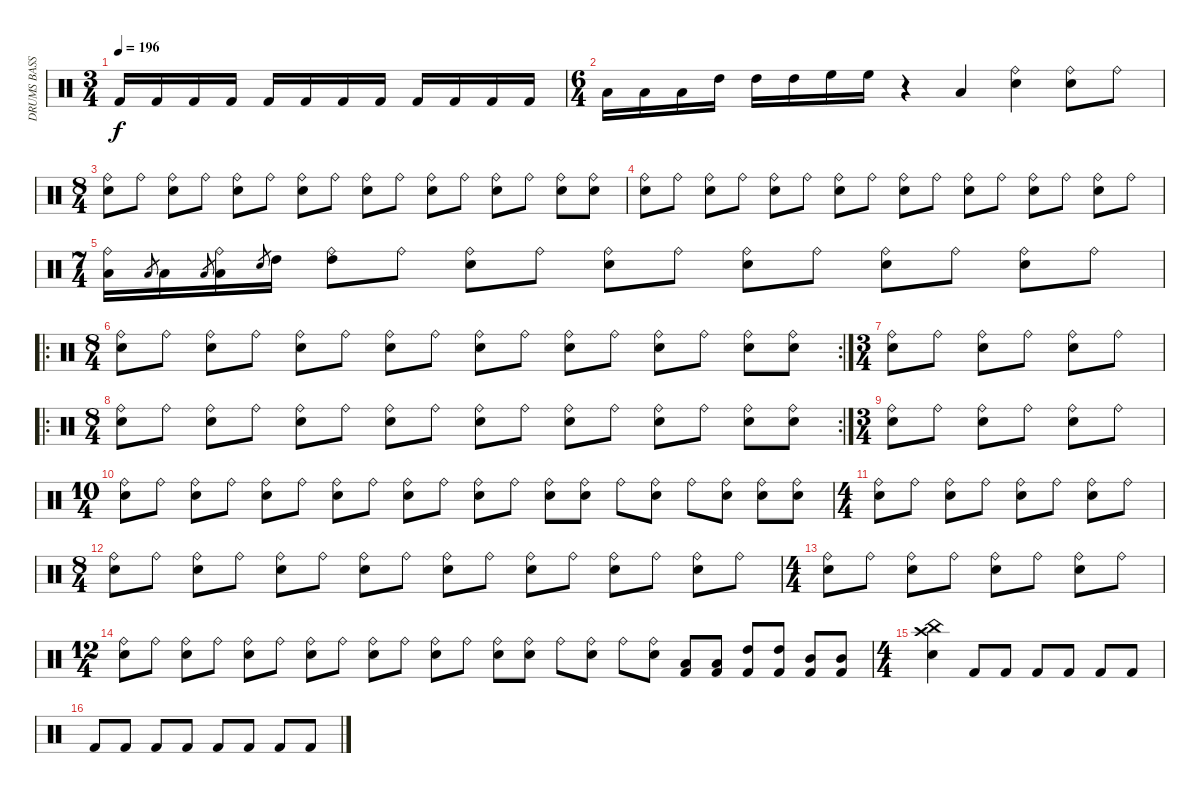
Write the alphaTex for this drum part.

\track ("DRUMS BASS" "DRUMS BASS") {instrument percussion}
\staff {score}
\articulation defaults
\ts (3 4)
\tempo 196
\clef neutral
\ks c "Kick (hit) 2".16{dy f} "Kick (hit) 2".16 "Kick (hit) 2".16 "Kick (hit) 2".16 "Kick (hit) 2".16 "Kick (hit) 2".16 "Kick (hit) 2".16 "Kick (hit) 2".16 "Kick (hit) 2".16 "Kick (hit) 2".16 "Kick (hit) 2".16 "Kick (hit) 2".16
|
\ts (6 4)
"Low Tom (hit)".16 "Low Tom (hit)".16 "Low Tom (hit)".16 "High Tom (hit)".16 "High Tom (hit)".16 "High Tom (hit)".16 "High Floor Tom (hit)".16 "High Floor Tom (hit)".16 r.4 "Low Tom (hit)".4 ("Electric Snare (hit)" "Ride (bell)").4 ("Electric Snare (hit)" "Ride (bell)").8 "Ride (bell)".8 |
\ts (8 4)
("Electric Snare (hit)" "Ride (bell)").8 "Ride (bell)".8 ("Electric Snare (hit)" "Ride (bell)").8 "Ride (bell)".8 ("Electric Snare (hit)" "Ride (bell)").8 "Ride (bell)".8 ("Electric Snare (hit)" "Ride (bell)").8 "Ride (bell)".8 ("Electric Snare (hit)" "Ride (bell)").8 "Ride (bell)".8 ("Electric Snare (hit)" "Ride (bell)").8 "Ride (bell)".8 ("Electric Snare (hit)" "Ride (bell)").8 "Ride (bell)".8 ("Electric Snare (hit)" "Ride (bell)").8 ("Electric Snare (hit)" "Ride (bell)").8 |
("Electric Snare (hit)" "Ride (bell)").8 "Ride (bell)".8 ("Electric Snare (hit)" "Ride (bell)").8 "Ride (bell)".8 ("Electric Snare (hit)" "Ride (bell)").8 "Ride (bell)".8 ("Electric Snare (hit)" "Ride (bell)").8 "Ride (bell)".8 ("Electric Snare (hit)" "Ride (bell)").8 "Ride (bell)".8 ("Electric Snare (hit)" "Ride (bell)").8 "Ride (bell)".8 ("Electric Snare (hit)" "Ride (bell)").8 "Ride (bell)".8 ("Electric Snare (hit)" "Ride (bell)").8 "Ride (bell)".8 |
\ts (7 4)
("Low Tom (hit)" "Ride (bell)").16 "Low Tom (hit)".8{gr} "Low Tom (hit)".16 "Low Tom (hit)".8{gr} ("Low Tom (hit)" "Ride (bell)").16 "Electric Snare (hit)".8{gr} "High Tom (hit)".16 ("High Tom (hit)" "Ride (bell)").8 "Ride (bell)".8 ("Electric Snare (hit)" "Ride (bell)").8 "Ride (bell)".8 ("Electric Snare (hit)" "Ride (bell)").8 "Ride (bell)".8 ("Electric Snare (hit)" "Ride (bell)").8 "Ride (bell)".8 ("Electric Snare (hit)" "Ride (bell)").8 "Ride (bell)".8 ("Electric Snare (hit)" "Ride (bell)").8 "Ride (bell)".8 |
\ro
\rc 2
\ts (8 4)
("Electric Snare (hit)" "Ride (bell)").8 "Ride (bell)".8 ("Electric Snare (hit)" "Ride (bell)").8 "Ride (bell)".8 ("Electric Snare (hit)" "Ride (bell)").8 "Ride (bell)".8 ("Electric Snare (hit)" "Ride (bell)").8 "Ride (bell)".8 ("Electric Snare (hit)" "Ride (bell)").8 "Ride (bell)".8 ("Electric Snare (hit)" "Ride (bell)").8 "Ride (bell)".8 ("Electric Snare (hit)" "Ride (bell)").8 "Ride (bell)".8 ("Electric Snare (hit)" "Ride (bell)").8 ("Electric Snare (hit)" "Ride (bell)").8 |
\ts (3 4)
("Electric Snare (hit)" "Ride (bell)").8 "Ride (bell)".8 ("Electric Snare (hit)" "Ride (bell)").8 "Ride (bell)".8 ("Electric Snare (hit)" "Ride (bell)").8 "Ride (bell)".8 |
\ro
\rc 2
\ts (8 4)
("Electric Snare (hit)" "Ride (bell)").8 "Ride (bell)".8 ("Electric Snare (hit)" "Ride (bell)").8 "Ride (bell)".8 ("Electric Snare (hit)" "Ride (bell)").8 "Ride (bell)".8 ("Electric Snare (hit)" "Ride (bell)").8 "Ride (bell)".8 ("Electric Snare (hit)" "Ride (bell)").8 "Ride (bell)".8 ("Electric Snare (hit)" "Ride (bell)").8 "Ride (bell)".8 ("Electric Snare (hit)" "Ride (bell)").8 "Ride (bell)".8 ("Electric Snare (hit)" "Ride (bell)").8 ("Electric Snare (hit)" "Ride (bell)").8 |
\ts (3 4)
("Electric Snare (hit)" "Ride (bell)").8 "Ride (bell)".8 ("Electric Snare (hit)" "Ride (bell)").8 "Ride (bell)".8 ("Electric Snare (hit)" "Ride (bell)").8 "Ride (bell)".8 |
\ts (10 4)
("Electric Snare (hit)" "Ride (bell)").8 "Ride (bell)".8 ("Electric Snare (hit)" "Ride (bell)").8 "Ride (bell)".8 ("Electric Snare (hit)" "Ride (bell)").8 "Ride (bell)".8 ("Electric Snare (hit)" "Ride (bell)").8 "Ride (bell)".8 ("Electric Snare (hit)" "Ride (bell)").8 "Ride (bell)".8 ("Electric Snare (hit)" "Ride (bell)").8 "Ride (bell)".8 ("Electric Snare (hit)" "Ride (bell)").8 ("Electric Snare (hit)" "Ride (bell)").8 "Ride (bell)".8 ("Electric Snare (hit)" "Ride (bell)").8 "Ride (bell)".8 ("Electric Snare (hit)" "Ride (bell)").8 ("Electric Snare (hit)" "Ride (bell)").8 ("Electric Snare (hit)" "Ride (bell)").8 |
\ts (4 4)
("Electric Snare (hit)" "Ride (bell)").8 "Ride (bell)".8 ("Electric Snare (hit)" "Ride (bell)").8 "Ride (bell)".8 ("Electric Snare (hit)" "Ride (bell)").8 "Ride (bell)".8 ("Electric Snare (hit)" "Ride (bell)").8 "Ride (bell)".8 |
\ts (8 4)
("Electric Snare (hit)" "Ride (bell)").8 "Ride (bell)".8 ("Electric Snare (hit)" "Ride (bell)").8 "Ride (bell)".8 ("Electric Snare (hit)" "Ride (bell)").8 "Ride (bell)".8 ("Electric Snare (hit)" "Ride (bell)").8 "Ride (bell)".8 ("Electric Snare (hit)" "Ride (bell)").8 "Ride (bell)".8 ("Electric Snare (hit)" "Ride (bell)").8 "Ride (bell)".8 ("Electric Snare (hit)" "Ride (bell)").8 "Ride (bell)".8 ("Electric Snare (hit)" "Ride (bell)").8 "Ride (bell)".8 |
\ts (4 4)
("Electric Snare (hit)" "Ride (bell)").8 "Ride (bell)".8 ("Electric Snare (hit)" "Ride (bell)").8 "Ride (bell)".8 ("Electric Snare (hit)" "Ride (bell)").8 "Ride (bell)".8 ("Electric Snare (hit)" "Ride (bell)").8 "Ride (bell)".8 |
\ts (12 4)
("Electric Snare (hit)" "Ride (bell)").8 "Ride (bell)".8 ("Electric Snare (hit)" "Ride (bell)").8 "Ride (bell)".8 ("Electric Snare (hit)" "Ride (bell)").8 "Ride (bell)".8 ("Electric Snare (hit)" "Ride (bell)").8 "Ride (bell)".8 ("Electric Snare (hit)" "Ride (bell)").8 "Ride (bell)".8 ("Electric Snare (hit)" "Ride (bell)").8 "Ride (bell)".8 ("Electric Snare (hit)" "Ride (bell)").8 ("Electric Snare (hit)" "Ride (bell)").8 "Ride (bell)".8 ("Electric Snare (hit)" "Ride (bell)").8 "Ride (bell)".8 ("Electric Snare (hit)" "Ride (bell)").8 ("Low Tom (hit)" "Kick (hit) 2").8 ("Low Tom (hit)" "Kick (hit) 2").8 ("High Tom (hit)" "Kick (hit) 2").8 ("High Tom (hit)" "Kick (hit) 2").8 ("Mid Tom (hit)" "Kick (hit) 2").8 ("Mid Tom (hit)" "Kick (hit) 2").8 |
\ts (4 4)
("Electric Snare (hit)" "Crash high (hit)" "China (hit)").4 "Kick (hit) 2".8 "Kick (hit) 2".8 "Kick (hit) 2".8 "Kick (hit) 2".8 "Kick (hit) 2".8 "Kick (hit) 2".8 |
"Kick (hit) 2".8 "Kick (hit) 2".8 "Kick (hit) 2".8 "Kick (hit) 2".8 "Kick (hit) 2".8 "Kick (hit) 2".8 "Kick (hit) 2".8 "Kick (hit) 2".8
